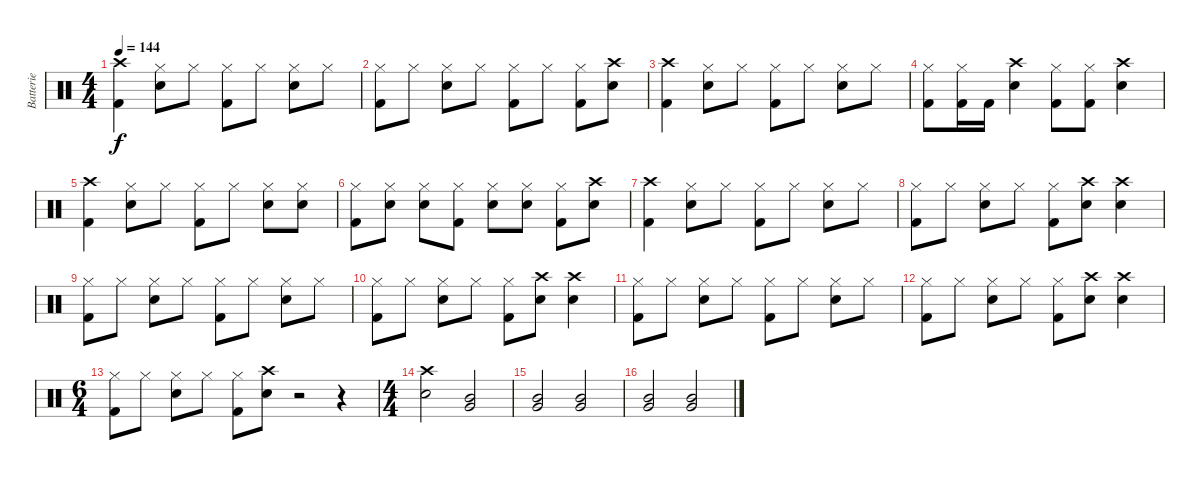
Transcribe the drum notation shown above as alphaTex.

\track ("Batterie" "Batterie") {instrument percussion}
\staff {score}
\articulation defaults
\ts (4 4)
\tempo 144
\clef neutral
\ks c
("Crash high (hit)" "Kick (hit) 2").4{dy f} ("Hi-Hat (closed)" "Snare (hit) 2").8 "Hi-Hat (closed)".8 ("Hi-Hat (closed)" "Kick (hit) 2").8 "Hi-Hat (closed)".8 ("Hi-Hat (closed)" "Snare (hit) 2").8 "Hi-Hat (closed)".8 |
("Hi-Hat (closed)" "Kick (hit) 2").8 "Hi-Hat (closed)".8 ("Hi-Hat (closed)" "Snare (hit) 2").8 "Hi-Hat (closed)".8 ("Hi-Hat (closed)" "Kick (hit) 2").8 "Hi-Hat (closed)".8 ("Hi-Hat (closed)" "Kick (hit) 2").8 ("Crash high (hit)" "Snare (hit) 2").8 |
("Crash high (hit)" "Kick (hit) 2").4 ("Hi-Hat (closed)" "Snare (hit) 2").8 "Hi-Hat (closed)".8 ("Hi-Hat (closed)" "Kick (hit) 2").8 "Hi-Hat (closed)".8 ("Hi-Hat (closed)" "Snare (hit) 2").8 "Hi-Hat (closed)".8 |
("Hi-Hat (closed)" "Kick (hit) 2").8 ("Hi-Hat (closed)" "Kick (hit) 2").16 "Kick (hit) 2".16 ("Crash high (hit)" "Snare (hit) 2").4 ("Hi-Hat (closed)" "Kick (hit) 2").8 ("Hi-Hat (closed)" "Kick (hit) 2").8 ("Crash high (hit)" "Snare (hit) 2").4 |
("Crash high (hit)" "Kick (hit) 2").4 ("Hi-Hat (closed)" "Snare (hit) 2").8 "Hi-Hat (closed)".8 ("Hi-Hat (closed)" "Kick (hit) 2").8 "Hi-Hat (closed)".8 ("Hi-Hat (closed)" "Snare (hit) 2").8 ("Hi-Hat (closed)" "Snare (hit) 2").8 |
("Hi-Hat (closed)" "Kick (hit) 2").8 ("Hi-Hat (closed)" "Snare (hit) 2").8 ("Hi-Hat (closed)" "Snare (hit) 2").8 ("Hi-Hat (closed)" "Kick (hit) 2").8 ("Hi-Hat (closed)" "Snare (hit) 2").8 ("Hi-Hat (closed)" "Snare (hit) 2").8 ("Hi-Hat (closed)" "Kick (hit) 2").8 ("Crash high (hit)" "Snare (hit) 2").8 |
("Crash high (hit)" "Kick (hit) 2").4 ("Hi-Hat (closed)" "Snare (hit) 2").8 "Hi-Hat (closed)".8 ("Hi-Hat (closed)" "Kick (hit) 2").8 "Hi-Hat (closed)".8 ("Hi-Hat (closed)" "Snare (hit) 2").8 "Hi-Hat (closed)".8 |
("Hi-Hat (closed)" "Kick (hit) 2").8 "Hi-Hat (closed)".8 ("Hi-Hat (closed)" "Snare (hit) 2").8 "Hi-Hat (closed)".8 ("Hi-Hat (closed)" "Kick (hit) 2").8 ("Crash high (hit)" "Snare (hit) 2").8 ("Crash high (hit)" "Snare (hit) 2").4 |
("Hi-Hat (closed)" "Kick (hit) 2").8 "Hi-Hat (closed)".8 ("Hi-Hat (closed)" "Snare (hit) 2").8 "Hi-Hat (closed)".8 ("Hi-Hat (closed)" "Kick (hit) 2").8 "Hi-Hat (closed)".8 ("Hi-Hat (closed)" "Snare (hit) 2").8 "Hi-Hat (closed)".8 |
("Hi-Hat (closed)" "Kick (hit) 2").8 "Hi-Hat (closed)".8 ("Hi-Hat (closed)" "Snare (hit) 2").8 "Hi-Hat (closed)".8 ("Hi-Hat (closed)" "Kick (hit) 2").8 ("Crash high (hit)" "Snare (hit) 2").8 ("Crash high (hit)" "Snare (hit) 2").4 |
("Hi-Hat (closed)" "Kick (hit) 2").8 "Hi-Hat (closed)".8 ("Hi-Hat (closed)" "Snare (hit) 2").8 "Hi-Hat (closed)".8 ("Hi-Hat (closed)" "Kick (hit) 2").8 "Hi-Hat (closed)".8 ("Hi-Hat (closed)" "Snare (hit) 2").8 "Hi-Hat (closed)".8 |
("Hi-Hat (closed)" "Kick (hit) 2").8 "Hi-Hat (closed)".8 ("Hi-Hat (closed)" "Snare (hit) 2").8 "Hi-Hat (closed)".8 ("Hi-Hat (closed)" "Kick (hit) 2").8 ("Crash high (hit)" "Snare (hit) 2").8 ("Crash high (hit)" "Snare (hit) 2").4 |
\ts (6 4)
("Hi-Hat (closed)" "Kick (hit) 2").8 "Hi-Hat (closed)".8 ("Hi-Hat (closed)" "Snare (hit) 2").8 "Hi-Hat (closed)".8 ("Hi-Hat (closed)" "Kick (hit) 2").8 ("Crash high (hit)" "Snare (hit) 2").8 r.2 r.4 |
\ts (4 4)
("Crash high (hit)" "Snare (hit) 2").2 ("Very Low Tom (hit)" "Mid Tom (hit)").2 |
("Very Low Tom (hit)" "Mid Tom (hit)").2 ("Very Low Tom (hit)" "Mid Tom (hit)").2 |
("Very Low Tom (hit)" "Mid Tom (hit)").2 ("Very Low Tom (hit)" "Mid Tom (hit)").2
